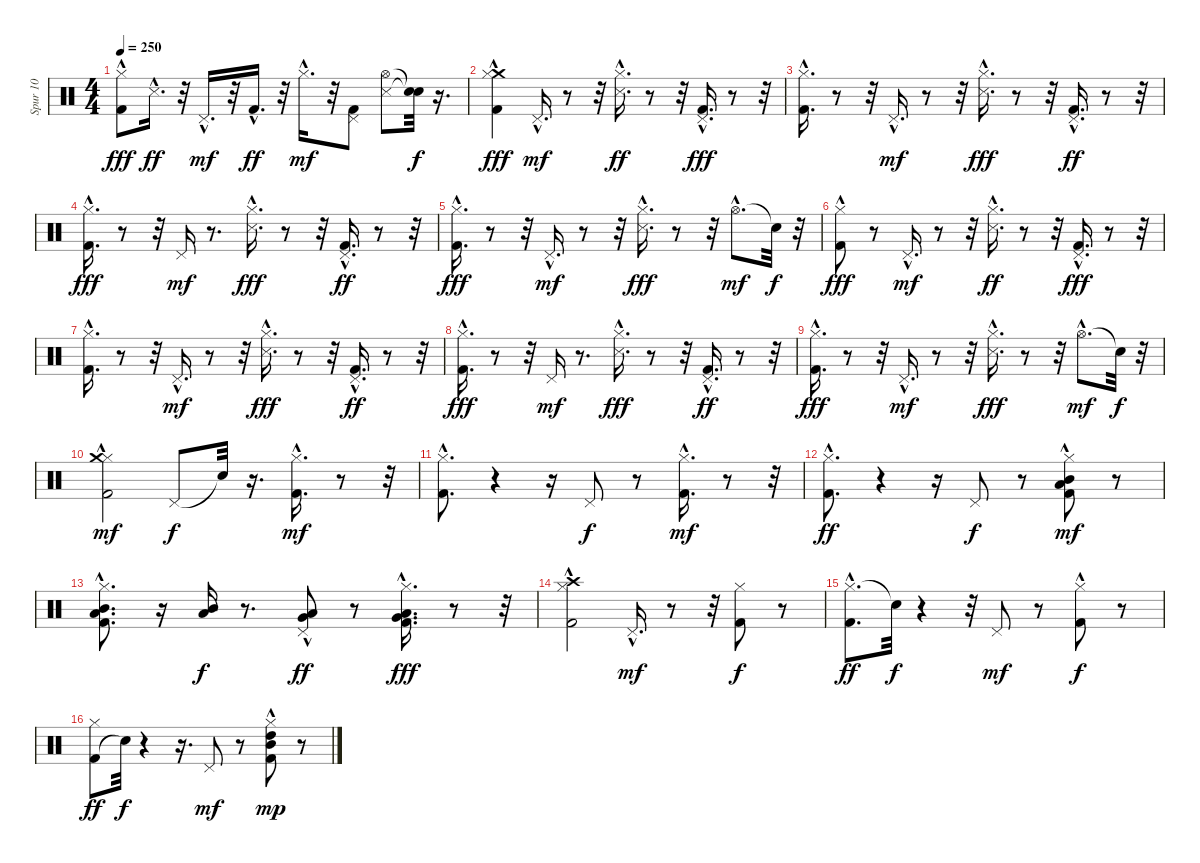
\track ("Spur 10" "Spur 10") {instrument percussion}
\staff {score}
\articulation defaults
\ts (4 4)
\tempo 250
\clef neutral
\ks c
("Hi-Hat (closed)"{hac} "Kick (hit) 2").8{dy fff} "Snare (side stick) 3"{hac}.16{d dy ff} r.32 "Pedal Hi-Hat (hit)"{hac}.16{d dy mf} r.32 "Kick (hit) 2"{hac}.16{d dy ff} r.32 "Hi-Hat (closed)"{hac}.16{d dy mf} r.32 ("Kick (hit) 2" "Pedal Hi-Hat (hit)").8 ("Snare (side stick) 3" "Hi-Hat (open)").8 ("Snare (hit)"{t} "Snare (hit)"{t}).32{dy f} r.16{d} |
("Crash medium (hit)"{hac} "Hi-Hat (closed)"{hac} "Kick (hit) 2").4{dy fff} "Pedal Hi-Hat (hit)"{hac}.16{d dy mf} r.8 r.32 ("Hi-Hat (closed)"{hac} "Snare (side stick) 3"{hac}).16{d dy ff} r.8 r.32 ("Pedal Hi-Hat (hit)"{hac} "Kick (hit) 2"{hac}).16{d dy fff} r.8 r.32 |
("Hi-Hat (closed)"{hac} "Kick (hit) 2"{hac}).16{d} r.8 r.32 "Pedal Hi-Hat (hit)"{hac}.16{d dy mf} r.8 r.32 ("Hi-Hat (closed)"{hac} "Snare (side stick) 3"{hac}).16{d dy fff} r.8 r.32 ("Pedal Hi-Hat (hit)"{hac} "Kick (hit) 2"{hac}).16{d dy ff} r.8 r.32 |
("Hi-Hat (closed)"{hac} "Kick (hit) 2"{hac}).16{d dy fff} r.8 r.32 "Pedal Hi-Hat (hit)".16{dy mf} r.8{d} ("Hi-Hat (closed)"{hac} "Snare (side stick) 3"{hac}).16{d dy fff} r.8 r.32 ("Pedal Hi-Hat (hit)"{hac} "Kick (hit) 2"{hac}).16{d dy ff} r.8 r.32 |
("Hi-Hat (closed)"{hac} "Kick (hit) 2"{hac}).16{d dy fff} r.8 r.32 "Pedal Hi-Hat (hit)"{hac}.16{d dy mf} r.8 r.32 ("Hi-Hat (closed)"{hac} "Snare (side stick) 3"{hac}).16{d dy fff} r.8 r.32 "Hi-Hat (open)"{hac}.8{d dy mf} "Snare (hit)"{t}.32{dy f} r.32 |
("Hi-Hat (closed)"{hac} "Kick (hit) 2").8{dy fff} r.8 "Pedal Hi-Hat (hit)"{hac}.16{d dy mf} r.8 r.32 ("Hi-Hat (closed)"{hac} "Snare (side stick) 3"{hac}).16{d dy ff} r.8 r.32 ("Pedal Hi-Hat (hit)"{hac} "Kick (hit) 2"{hac}).16{d dy fff} r.8 r.32 |
("Hi-Hat (closed)"{hac} "Kick (hit) 2"{hac}).16{d} r.8 r.32 "Pedal Hi-Hat (hit)"{hac}.16{d dy mf} r.8 r.32 ("Hi-Hat (closed)"{hac} "Snare (side stick) 3"{hac}).16{d dy fff} r.8 r.32 ("Pedal Hi-Hat (hit)"{hac} "Kick (hit) 2"{hac}).16{d dy ff} r.8 r.32 |
("Hi-Hat (closed)"{hac} "Kick (hit) 2"{hac}).16{d dy fff} r.8 r.32 "Pedal Hi-Hat (hit)".16{dy mf} r.8{d} ("Hi-Hat (closed)"{hac} "Snare (side stick) 3"{hac}).16{d dy fff} r.8 r.32 ("Pedal Hi-Hat (hit)"{hac} "Kick (hit) 2"{hac}).16{d dy ff} r.8 r.32 |
("Hi-Hat (closed)"{hac} "Kick (hit) 2"{hac}).16{d dy fff} r.8 r.32 "Pedal Hi-Hat (hit)"{hac}.16{d dy mf} r.8 r.32 ("Hi-Hat (closed)"{hac} "Snare (side stick) 3"{hac}).16{d dy fff} r.8 r.32 "Hi-Hat (open)"{hac}.8{d dy mf} "Snare (hit)"{t}.32{dy f} r.32 |
("Kick (hit) 2"{hac} "Hi-Hat (closed)" "Crash medium (hit)").2{dy mf} "Pedal Hi-Hat (hit)".8{dy f} "Snare (hit)"{t}.32 r.16{d} ("Kick (hit) 2"{hac} "Hi-Hat (closed)"{hac}).16{d dy mf} r.8 r.32 |
("Kick (hit) 2"{hac} "Hi-Hat (closed)").8{d} r.4 r.16 "Pedal Hi-Hat (hit)".8{dy f} r.8 ("Kick (hit) 2"{hac} "Hi-Hat (closed)"{hac}).16{d dy mf} r.8 r.32 |
("Hi-Hat (closed)" "Kick (hit) 2"{hac}).8{d dy ff} r.4 r.16 "Pedal Hi-Hat (hit)".8{dy f} r.8 ("Kick (hit) 2" "Hi-Hat (closed)"{hac} "Mid Tom (hit)"{hac} "Low Tom (hit)"{hac}).8{dy mf} r.8 |
("Hi-Hat (closed)" "Kick (hit) 2"{hac} "Mid Tom (hit)"{hac} "Low Tom (hit)"{hac}).8{d} r.16 ("Mid Tom (hit)" "Low Tom (hit)").16{dy f} r.8{d} ("Pedal Hi-Hat (hit)" "Very Low Tom (hit)"{hac} "Low Tom (hit)").8{dy ff} r.8 ("Kick (hit) 2"{hac} "Hi-Hat (closed)"{hac} "Very Low Tom (hit)" "Low Tom (hit)").16{d dy fff} r.8 r.32 |
("Hi-Hat (closed)" "Kick (hit) 2"{hac} "Crash high (hit)"{hac}).2 "Pedal Hi-Hat (hit)"{hac}.16{d dy mf} r.8 r.32 ("Kick (hit) 2" "Hi-Hat (closed)").8{dy f} r.8 |
("Hi-Hat (closed)" "Kick (hit) 2"{hac}).8{d dy ff} "Snare (hit)"{t}.32{dy f} r.4 r.32 "Pedal Hi-Hat (hit)".8{dy mf} r.8 ("Kick (hit) 2" "Hi-Hat (closed)"{hac}).8{dy f} r.8 |
("Kick (hit) 2" "Hi-Hat (closed)").8{dy ff} "Snare (hit)"{t}.32{dy f} r.4 r.16{d} "Pedal Hi-Hat (hit)".8{dy mf} r.8 ("Hi-Hat (closed)"{hac} "Kick (hit) 2" "Mid Tom (hit)"{hac} "High Tom (hit)").8{dy mp} r.8
